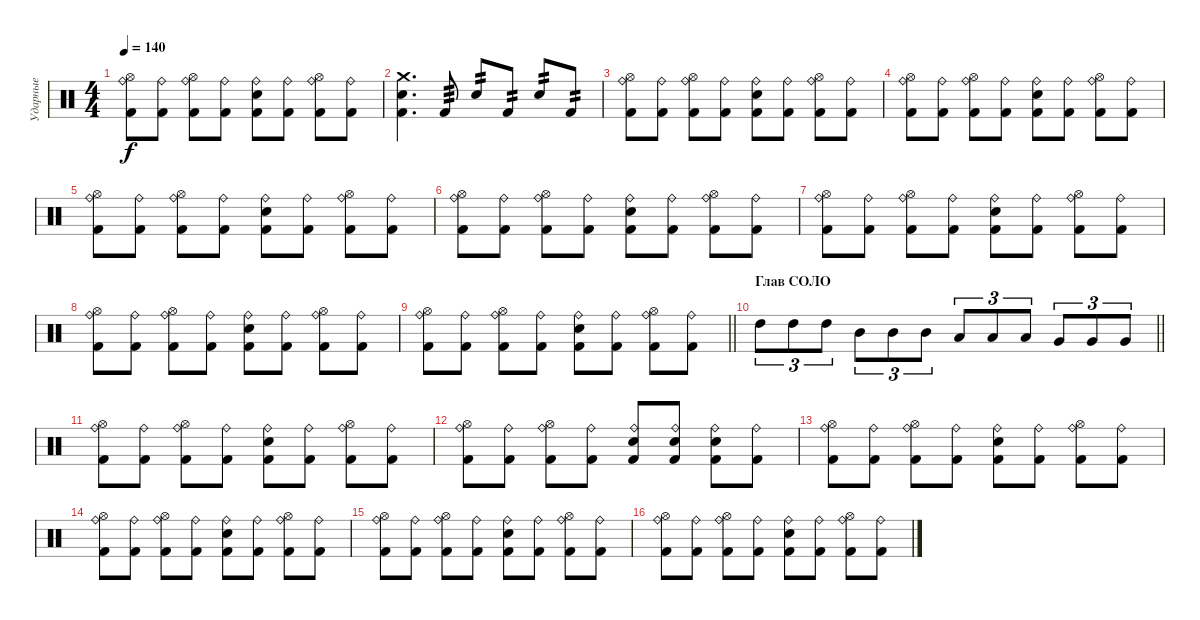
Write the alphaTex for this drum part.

\track ("Ударные" "Ударные") {instrument percussion}
\staff {score}
\articulation defaults
\ts (4 4)
\tempo 140
\clef neutral
\ks c
("Kick (hit) 2" "Ride (bell)" "Hi-Hat (open)").8{dy f} ("Kick (hit) 2" "Ride (bell)").8 ("Kick (hit) 2" "Ride (bell)" "Hi-Hat (open)").8 ("Kick (hit) 2" "Ride (bell)").8 ("Kick (hit) 2" "Ride (bell)" "Snare (hit) 2").8 ("Kick (hit) 2" "Ride (bell)").8 ("Kick (hit) 2" "Ride (bell)" "Hi-Hat (open)").8 ("Kick (hit) 2" "Ride (bell)").8 |
("Kick (hit) 2" "Snare (hit) 2" "Crash medium (hit)").4{d} "Kick (hit) 2".8{tp 3} "Snare (hit) 2".8{tp 2} "Kick (hit) 2".8{tp 2} "Snare (hit) 2".8{tp 2} "Kick (hit) 2".8{tp 2} |
("Kick (hit) 2" "Ride (bell)" "Hi-Hat (open)").8 ("Kick (hit) 2" "Ride (bell)").8 ("Kick (hit) 2" "Ride (bell)" "Hi-Hat (open)").8 ("Kick (hit) 2" "Ride (bell)").8 ("Kick (hit) 2" "Ride (bell)" "Snare (hit) 2").8 ("Kick (hit) 2" "Ride (bell)").8 ("Kick (hit) 2" "Ride (bell)" "Hi-Hat (open)").8 ("Kick (hit) 2" "Ride (bell)").8 |
("Kick (hit) 2" "Ride (bell)" "Hi-Hat (open)").8 ("Kick (hit) 2" "Ride (bell)").8 ("Kick (hit) 2" "Ride (bell)" "Hi-Hat (open)").8 ("Kick (hit) 2" "Ride (bell)").8 ("Kick (hit) 2" "Ride (bell)" "Snare (hit) 2").8 ("Kick (hit) 2" "Ride (bell)").8 ("Kick (hit) 2" "Ride (bell)" "Hi-Hat (open)").8 ("Kick (hit) 2" "Ride (bell)").8 |
("Kick (hit) 2" "Ride (bell)" "Hi-Hat (open)").8 ("Kick (hit) 2" "Ride (bell)").8 ("Kick (hit) 2" "Ride (bell)" "Hi-Hat (open)").8 ("Kick (hit) 2" "Ride (bell)").8 ("Kick (hit) 2" "Ride (bell)" "Snare (hit) 2").8 ("Kick (hit) 2" "Ride (bell)").8 ("Kick (hit) 2" "Ride (bell)" "Hi-Hat (open)").8 ("Kick (hit) 2" "Ride (bell)").8 |
("Kick (hit) 2" "Ride (bell)" "Hi-Hat (open)").8 ("Kick (hit) 2" "Ride (bell)").8 ("Kick (hit) 2" "Ride (bell)" "Hi-Hat (open)").8 ("Kick (hit) 2" "Ride (bell)").8 ("Kick (hit) 2" "Ride (bell)" "Snare (hit) 2").8 ("Kick (hit) 2" "Ride (bell)").8 ("Kick (hit) 2" "Ride (bell)" "Hi-Hat (open)").8 ("Kick (hit) 2" "Ride (bell)").8 |
("Kick (hit) 2" "Ride (bell)" "Hi-Hat (open)").8 ("Kick (hit) 2" "Ride (bell)").8 ("Kick (hit) 2" "Ride (bell)" "Hi-Hat (open)").8 ("Kick (hit) 2" "Ride (bell)").8 ("Kick (hit) 2" "Ride (bell)" "Snare (hit) 2").8 ("Kick (hit) 2" "Ride (bell)").8 ("Kick (hit) 2" "Ride (bell)" "Hi-Hat (open)").8 ("Kick (hit) 2" "Ride (bell)").8 |
("Kick (hit) 2" "Ride (bell)" "Hi-Hat (open)").8 ("Kick (hit) 2" "Ride (bell)").8 ("Kick (hit) 2" "Ride (bell)" "Hi-Hat (open)").8 ("Kick (hit) 2" "Ride (bell)").8 ("Kick (hit) 2" "Ride (bell)" "Snare (hit) 2").8 ("Kick (hit) 2" "Ride (bell)").8 ("Kick (hit) 2" "Ride (bell)" "Hi-Hat (open)").8 ("Kick (hit) 2" "Ride (bell)").8 |
\barLineRight lightlight
("Kick (hit) 2" "Ride (bell)" "Hi-Hat (open)").8 ("Kick (hit) 2" "Ride (bell)").8 ("Kick (hit) 2" "Ride (bell)" "Hi-Hat (open)").8 ("Kick (hit) 2" "Ride (bell)").8 ("Kick (hit) 2" "Ride (bell)" "Snare (hit) 2").8 ("Kick (hit) 2" "Ride (bell)").8 ("Kick (hit) 2" "Ride (bell)" "Hi-Hat (open)").8 ("Kick (hit) 2" "Ride (bell)").8 |
\section ("" "Глав СОЛО")
\barLineRight lightlight "High Tom (hit)".8{tu (3 2) volume 16} "High Tom (hit)".8{tu (3 2)} "High Tom (hit)".8{tu (3 2)} "Mid Tom (hit)".8{tu (3 2)} "Mid Tom (hit)".8{tu (3 2)} "Mid Tom (hit)".8{tu (3 2)} "Low Tom (hit)".8{tu (3 2)} "Low Tom (hit)".8{tu (3 2)} "Low Tom (hit)".8{tu (3 2)} "Very Low Tom (hit)".8{tu (3 2)} "Very Low Tom (hit)".8{tu (3 2)} "Very Low Tom (hit)".8{tu (3 2)}
|
("Kick (hit) 2" "Ride (bell)" "Hi-Hat (open)").8 ("Kick (hit) 2" "Ride (bell)").8 ("Kick (hit) 2" "Ride (bell)" "Hi-Hat (open)").8 ("Kick (hit) 2" "Ride (bell)").8 ("Kick (hit) 2" "Ride (bell)" "Snare (hit) 2").8 ("Kick (hit) 2" "Ride (bell)").8 ("Kick (hit) 2" "Ride (bell)" "Hi-Hat (open)").8 ("Kick (hit) 2" "Ride (bell)").8 |
("Kick (hit) 2" "Ride (bell)" "Hi-Hat (open)").8 ("Kick (hit) 2" "Ride (bell)").8 ("Kick (hit) 2" "Ride (bell)" "Hi-Hat (open)").8 ("Kick (hit) 2" "Ride (bell)").8 ("Kick (hit) 2" "Ride (bell)" "Snare (hit) 2").8 ("Kick (hit) 2" "Ride (bell)" "Snare (hit) 2").8 ("Kick (hit) 2" "Ride (bell)" "Snare (hit) 2").8 ("Kick (hit) 2" "Ride (bell)").8 |
("Kick (hit) 2" "Ride (bell)" "Hi-Hat (open)").8 ("Kick (hit) 2" "Ride (bell)").8 ("Kick (hit) 2" "Ride (bell)" "Hi-Hat (open)").8 ("Kick (hit) 2" "Ride (bell)").8 ("Kick (hit) 2" "Ride (bell)" "Snare (hit) 2").8 ("Kick (hit) 2" "Ride (bell)").8 ("Kick (hit) 2" "Ride (bell)" "Hi-Hat (open)").8 ("Kick (hit) 2" "Ride (bell)").8 |
("Kick (hit) 2" "Ride (bell)" "Hi-Hat (open)").8 ("Kick (hit) 2" "Ride (bell)").8 ("Kick (hit) 2" "Ride (bell)" "Hi-Hat (open)").8 ("Kick (hit) 2" "Ride (bell)").8 ("Kick (hit) 2" "Ride (bell)" "Snare (hit) 2").8 ("Kick (hit) 2" "Ride (bell)").8 ("Kick (hit) 2" "Ride (bell)" "Hi-Hat (open)").8 ("Kick (hit) 2" "Ride (bell)").8 |
("Kick (hit) 2" "Ride (bell)" "Hi-Hat (open)").8 ("Kick (hit) 2" "Ride (bell)").8 ("Kick (hit) 2" "Ride (bell)" "Hi-Hat (open)").8 ("Kick (hit) 2" "Ride (bell)").8 ("Kick (hit) 2" "Ride (bell)" "Snare (hit) 2").8 ("Kick (hit) 2" "Ride (bell)").8 ("Kick (hit) 2" "Ride (bell)" "Hi-Hat (open)").8 ("Kick (hit) 2" "Ride (bell)").8 |
("Kick (hit) 2" "Ride (bell)" "Hi-Hat (open)").8 ("Kick (hit) 2" "Ride (bell)").8 ("Kick (hit) 2" "Ride (bell)" "Hi-Hat (open)").8 ("Kick (hit) 2" "Ride (bell)").8 ("Kick (hit) 2" "Ride (bell)" "Snare (hit) 2").8 ("Kick (hit) 2" "Ride (bell)").8 ("Kick (hit) 2" "Ride (bell)" "Hi-Hat (open)").8 ("Kick (hit) 2" "Ride (bell)").8
